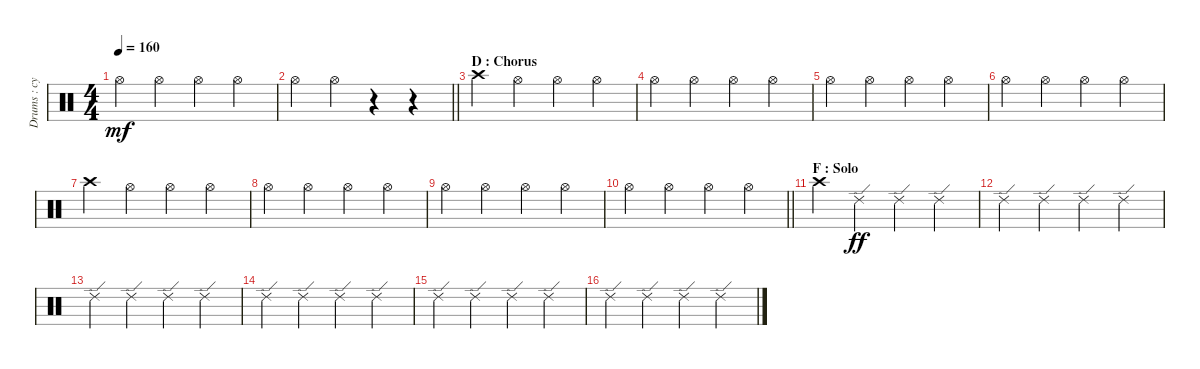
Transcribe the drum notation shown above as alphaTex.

\track ("Drums : cymbals" "Drums : cy") {instrument percussion}
\staff {score}
\articulation defaults
\ts (4 4)
\tempo 160
\clef neutral
\ks c "Hi-Hat (open)".4{dy mf} "Hi-Hat (open)".4 "Hi-Hat (open)".4 "Hi-Hat (open)".4
|
\barLineRight lightlight "Hi-Hat (open)".4 "Hi-Hat (open)".4
r.4 r.4 |
\section ("" "D : Chorus")
"Crash high (hit)".4 "Hi-Hat (open)".4 "Hi-Hat (open)".4 "Hi-Hat (open)".4 |
"Hi-Hat (open)".4 "Hi-Hat (open)".4 "Hi-Hat (open)".4 "Hi-Hat (open)".4 |
"Hi-Hat (open)".4 "Hi-Hat (open)".4 "Hi-Hat (open)".4 "Hi-Hat (open)".4 |
"Hi-Hat (open)".4 "Hi-Hat (open)".4 "Hi-Hat (open)".4 "Hi-Hat (open)".4 |
"Crash high (hit)".4 "Hi-Hat (open)".4 "Hi-Hat (open)".4 "Hi-Hat (open)".4 |
"Hi-Hat (open)".4 "Hi-Hat (open)".4 "Hi-Hat (open)".4 "Hi-Hat (open)".4 |
"Hi-Hat (open)".4 "Hi-Hat (open)".4 "Hi-Hat (open)".4 "Hi-Hat (open)".4 |
\barLineRight lightlight "Hi-Hat (open)".4 "Hi-Hat (open)".4 "Hi-Hat (open)".4 "Hi-Hat (open)".4
|
\section ("" "F : Solo")
"Crash high (hit)".4 "Ride (edge) 2".4{dy ff} "Ride (edge) 2".4 "Ride (edge) 2".4 |
"Ride (edge) 2".4 "Ride (edge) 2".4 "Ride (edge) 2".4 "Ride (edge) 2".4 |
"Ride (edge) 2".4 "Ride (edge) 2".4 "Ride (edge) 2".4 "Ride (edge) 2".4 |
"Ride (edge) 2".4 "Ride (edge) 2".4 "Ride (edge) 2".4 "Ride (edge) 2".4 |
"Ride (edge) 2".4 "Ride (edge) 2".4 "Ride (edge) 2".4 "Ride (edge) 2".4 |
"Ride (edge) 2".4 "Ride (edge) 2".4 "Ride (edge) 2".4 "Ride (edge) 2".4
